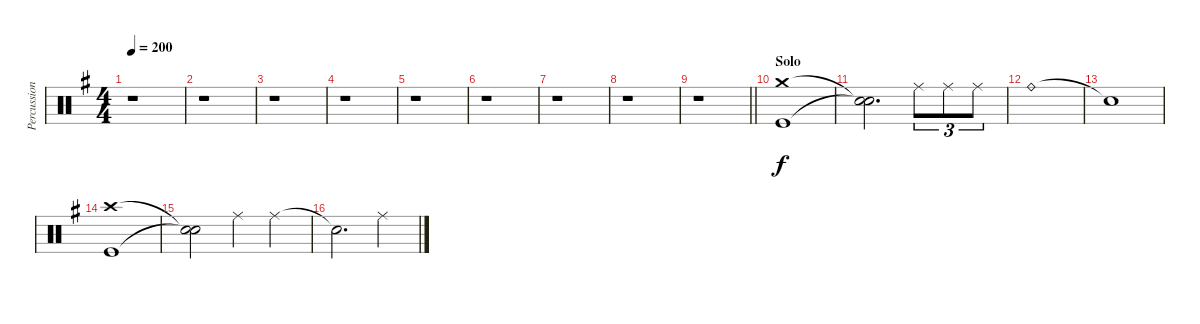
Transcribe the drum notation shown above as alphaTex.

\track ("Percussion" "Percussion") {instrument percussion}
\staff {score}
\articulation defaults
\ts (4 4)
\tempo 200
\clef neutral
\ks g
r.1{dy f} |
r.1 |
r.1 |
r.1 |
r.1 |
r.1 |
r.1 |
r.1 |
\barLineRight lightlight
r.1 |
\section ("" "Solo")
("Crash medium (hit)" "Kick (hit)").1 |
("Snare (hit)"{t} "Snare (hit)"{t}).2{d} "Ride (middle)".8{tu (3 2)} "Ride (middle)".8{tu (3 2)} "Ride (middle)".8{tu (3 2)} |
"Ride (bell)".1 |
"Snare (hit)"{t}.1 |
("Crash high (hit)" "Kick (hit)").1 |
("Snare (hit)"{t} "Snare (hit)"{t}).2 "Ride (middle)".4 "Ride (middle)".4 |
"Snare (hit)"{t}.2{d} "Ride (middle)".4
